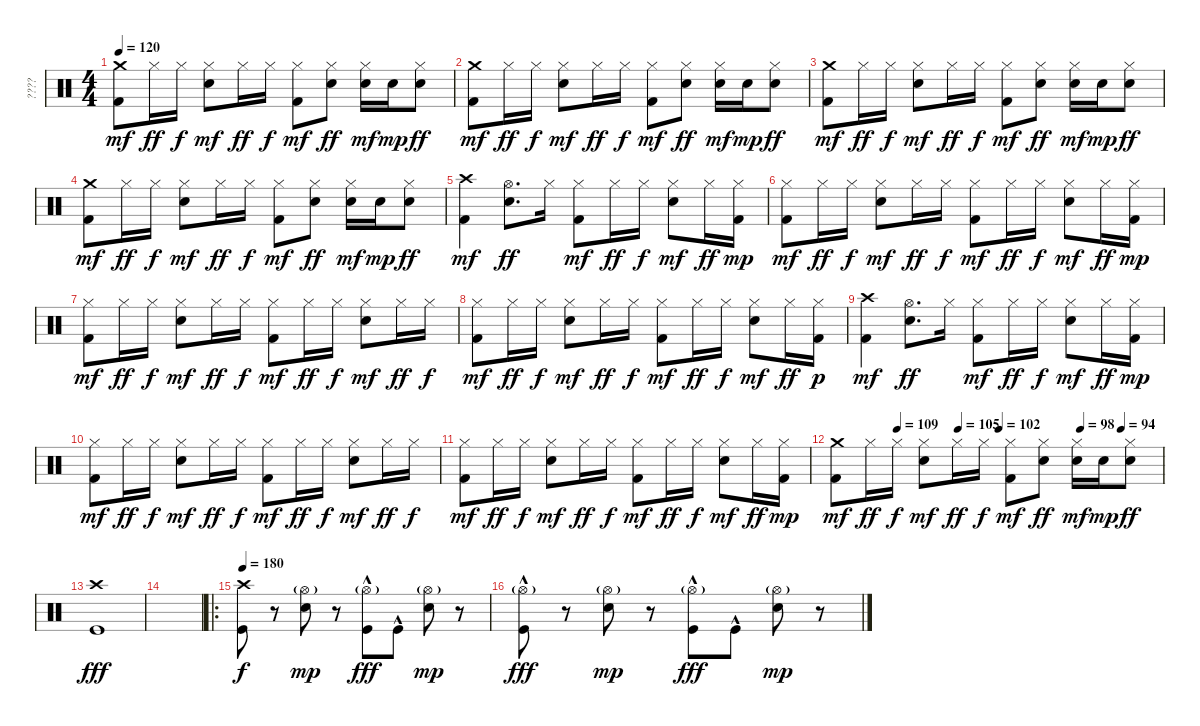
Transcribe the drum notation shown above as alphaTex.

\track ("????" "????") {instrument percussion}
\staff {score}
\articulation defaults
\ts (4 4)
\tempo 120
\clef neutral
\ks c
("Kick (hit) 2" "Crash medium (hit)").8{dy mf} "Hi-Hat (closed)".16{dy ff} "Hi-Hat (closed)".16{dy f} ("Snare (hit) 2" "Hi-Hat (closed)").8{dy mf} "Hi-Hat (closed)".16{dy ff} "Hi-Hat (closed)".16{dy f} ("Kick (hit) 2" "Hi-Hat (closed)").8{dy mf} ("Snare (hit) 2" "Hi-Hat (closed)").8{dy ff} ("Snare (hit) 2" "Hi-Hat (closed)").16{dy mf} "Snare (hit) 2".16{dy mp} ("Snare (hit) 2" "Hi-Hat (closed)").8{dy ff} |
("Kick (hit) 2" "Crash medium (hit)").8{dy mf} "Hi-Hat (closed)".16{dy ff} "Hi-Hat (closed)".16{dy f} ("Snare (hit) 2" "Hi-Hat (closed)").8{dy mf} "Hi-Hat (closed)".16{dy ff} "Hi-Hat (closed)".16{dy f} ("Kick (hit) 2" "Hi-Hat (closed)").8{dy mf} ("Snare (hit) 2" "Hi-Hat (closed)").8{dy ff} ("Snare (hit) 2" "Hi-Hat (closed)").16{dy mf} "Snare (hit) 2".16{dy mp} ("Snare (hit) 2" "Hi-Hat (closed)").8{dy ff} |
("Kick (hit) 2" "Crash medium (hit)").8{dy mf} "Hi-Hat (closed)".16{dy ff} "Hi-Hat (closed)".16{dy f} ("Snare (hit) 2" "Hi-Hat (closed)").8{dy mf} "Hi-Hat (closed)".16{dy ff} "Hi-Hat (closed)".16{dy f} ("Kick (hit) 2" "Hi-Hat (closed)").8{dy mf} ("Snare (hit) 2" "Hi-Hat (closed)").8{dy ff} ("Snare (hit) 2" "Hi-Hat (closed)").16{dy mf} "Snare (hit) 2".16{dy mp} ("Snare (hit) 2" "Hi-Hat (closed)").8{dy ff} |
("Kick (hit) 2" "Crash medium (hit)").8{dy mf} "Hi-Hat (closed)".16{dy ff} "Hi-Hat (closed)".16{dy f} ("Snare (hit) 2" "Hi-Hat (closed)").8{dy mf} "Hi-Hat (closed)".16{dy ff} "Hi-Hat (closed)".16{dy f} ("Kick (hit) 2" "Hi-Hat (closed)").8{dy mf} ("Snare (hit) 2" "Hi-Hat (closed)").8{dy ff} ("Snare (hit) 2" "Hi-Hat (closed)").16{dy mf} "Snare (hit) 2".16{dy mp} ("Snare (hit) 2" "Hi-Hat (closed)").8{dy ff} |
("Kick (hit) 2" "Crash high (hit)").4{dy mf} ("Snare (hit) 2" "Hi-Hat (open)").8{d dy ff} "Hi-Hat (closed)".16 ("Hi-Hat (closed)" "Kick (hit) 2").8{dy mf} "Hi-Hat (closed)".16{dy ff} "Hi-Hat (closed)".16{dy f} ("Hi-Hat (closed)" "Snare (hit) 2").8{dy mf} "Hi-Hat (closed)".16{dy ff} ("Hi-Hat (closed)" "Kick (hit) 2").16{dy mp} |
("Hi-Hat (closed)" "Kick (hit) 2").8{dy mf} "Hi-Hat (closed)".16{dy ff} "Hi-Hat (closed)".16{dy f} ("Hi-Hat (closed)" "Snare (hit) 2").8{dy mf} "Hi-Hat (closed)".16{dy ff} "Hi-Hat (closed)".16{dy f} ("Hi-Hat (closed)" "Kick (hit) 2").8{dy mf} "Hi-Hat (closed)".16{dy ff} "Hi-Hat (closed)".16{dy f} ("Hi-Hat (closed)" "Snare (hit) 2").8{dy mf} "Hi-Hat (closed)".16{dy ff} ("Hi-Hat (closed)" "Kick (hit) 2").16{dy mp} |
("Hi-Hat (closed)" "Kick (hit) 2").8{dy mf} "Hi-Hat (closed)".16{dy ff} "Hi-Hat (closed)".16{dy f} ("Hi-Hat (closed)" "Snare (hit) 2").8{dy mf} "Hi-Hat (closed)".16{dy ff} "Hi-Hat (closed)".16{dy f} ("Hi-Hat (closed)" "Kick (hit) 2").8{dy mf} "Hi-Hat (closed)".16{dy ff} "Hi-Hat (closed)".16{dy f} ("Hi-Hat (closed)" "Snare (hit) 2").8{dy mf} "Hi-Hat (closed)".16{dy ff} "Hi-Hat (closed)".16{dy f} |
("Hi-Hat (closed)" "Kick (hit) 2").8{dy mf} "Hi-Hat (closed)".16{dy ff} "Hi-Hat (closed)".16{dy f} ("Hi-Hat (closed)" "Snare (hit) 2").8{dy mf} "Hi-Hat (closed)".16{dy ff} "Hi-Hat (closed)".16{dy f} ("Hi-Hat (closed)" "Kick (hit) 2").8{dy mf} "Hi-Hat (closed)".16{dy ff} "Hi-Hat (closed)".16{dy f} ("Hi-Hat (closed)" "Snare (hit) 2").8{dy mf} "Hi-Hat (closed)".16{dy ff} ("Kick (hit) 2" "Hi-Hat (closed)").16{dy p} |
("Kick (hit) 2" "Crash high (hit)").4{dy mf} ("Snare (hit) 2" "Hi-Hat (open)").8{d dy ff} "Hi-Hat (closed)".16 ("Hi-Hat (closed)" "Kick (hit) 2").8{dy mf} "Hi-Hat (closed)".16{dy ff} "Hi-Hat (closed)".16{dy f} ("Hi-Hat (closed)" "Snare (hit) 2").8{dy mf} "Hi-Hat (closed)".16{dy ff} ("Hi-Hat (closed)" "Kick (hit) 2").16{dy mp} |
("Hi-Hat (closed)" "Kick (hit) 2").8{dy mf} "Hi-Hat (closed)".16{dy ff} "Hi-Hat (closed)".16{dy f} ("Hi-Hat (closed)" "Snare (hit) 2").8{dy mf} "Hi-Hat (closed)".16{dy ff} "Hi-Hat (closed)".16{dy f} ("Hi-Hat (closed)" "Kick (hit) 2").8{dy mf} "Hi-Hat (closed)".16{dy ff} "Hi-Hat (closed)".16{dy f} ("Hi-Hat (closed)" "Snare (hit) 2").8{dy mf} "Hi-Hat (closed)".16{dy ff} "Hi-Hat (closed)".16{dy f} |
("Hi-Hat (closed)" "Kick (hit) 2").8{dy mf} "Hi-Hat (closed)".16{dy ff} "Hi-Hat (closed)".16{dy f} ("Hi-Hat (closed)" "Snare (hit) 2").8{dy mf} "Hi-Hat (closed)".16{dy ff} "Hi-Hat (closed)".16{dy f} ("Hi-Hat (closed)" "Kick (hit) 2").8{dy mf} "Hi-Hat (closed)".16{dy ff} "Hi-Hat (closed)".16{dy f} ("Hi-Hat (closed)" "Snare (hit) 2").8{dy mf} "Hi-Hat (closed)".16{dy ff} ("Hi-Hat (closed)" "Kick (hit) 2").16{dy mp} |
\tempo (109 0.1875)
\tempo (105 0.375)
\tempo (102 0.5)
\tempo (98 0.75)
\tempo (94 0.875)
("Kick (hit) 2" "Crash medium (hit)").8{dy mf} "Hi-Hat (closed)".16{dy ff} "Hi-Hat (closed)".16{dy f} ("Snare (hit) 2" "Hi-Hat (closed)").8{dy mf} "Hi-Hat (closed)".16{dy ff} "Hi-Hat (closed)".16{dy f} ("Kick (hit) 2" "Hi-Hat (closed)").8{dy mf} ("Snare (hit) 2" "Hi-Hat (closed)").8{dy ff} ("Snare (hit) 2" "Hi-Hat (closed)").16{dy mf} "Snare (hit) 2".16{dy mp} ("Snare (hit) 2" "Hi-Hat (closed)").8{dy ff} |
("Crash high (hit)" "Kick (hit)").1{dy fff} |
|
\ro
\tempo 180
("Crash high (hit)" "Kick (hit)").8{dy f} r.8 ("Hi-Hat (open)"{g} "Snare (hit) 2").8{dy mp} r.8 ("Hi-Hat (open)"{g} "Kick (hit)"{hac}).8{dy fff} "Kick (hit)"{hac}.8 ("Hi-Hat (open)"{g} "Snare (hit) 2").8{dy mp} r.8 |
("Hi-Hat (open)"{g} "Kick (hit)"{hac}).8{dy fff} r.8 ("Hi-Hat (open)"{g} "Snare (hit) 2").8{dy mp} r.8 ("Hi-Hat (open)"{g} "Kick (hit)"{hac}).8{dy fff} "Kick (hit)"{hac}.8 ("Hi-Hat (open)"{g} "Snare (hit) 2").8{dy mp} r.8
